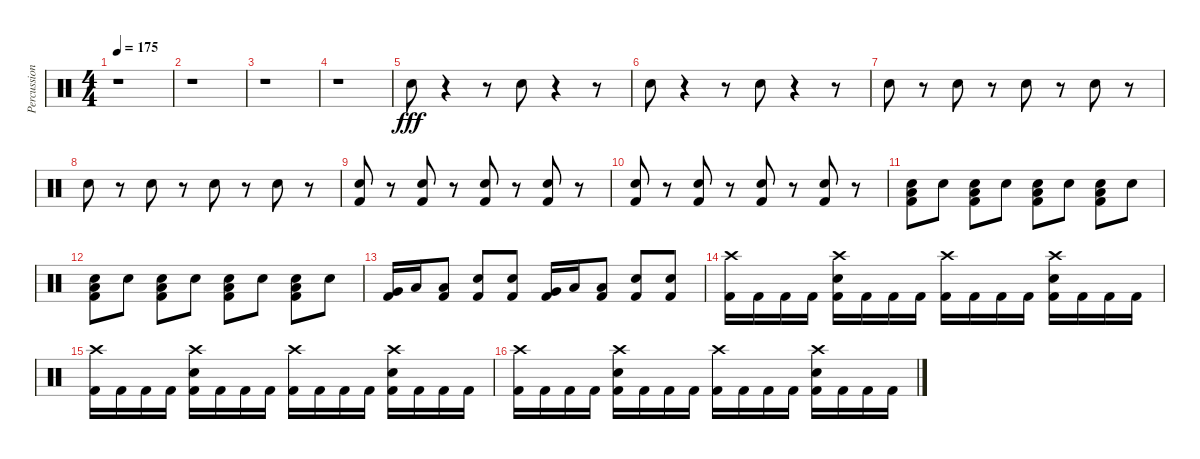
\track ("Percussion" "Percussion") {instrument percussion}
\staff {score}
\articulation defaults
\ts (4 4)
\tempo 175
\clef neutral
\ks c
r.1{dy fff} |
r.1 |
r.1 |
r.1 |
"Electric Snare (hit)".8 r.4 r.8 "Electric Snare (hit)".8 r.4 r.8 |
"Electric Snare (hit)".8 r.4 r.8 "Electric Snare (hit)".8 r.4 r.8 |
"Electric Snare (hit)".8 r.8 "Electric Snare (hit)".8 r.8 "Electric Snare (hit)".8 r.8 "Electric Snare (hit)".8 r.8 |
"Electric Snare (hit)".8 r.8 "Electric Snare (hit)".8 r.8 "Electric Snare (hit)".8 r.8 "Electric Snare (hit)".8 r.8 |
("Kick (hit) 2" "Electric Snare (hit)").8 r.8 ("Kick (hit) 2" "Electric Snare (hit)").8 r.8 ("Kick (hit) 2" "Electric Snare (hit)").8 r.8 ("Kick (hit) 2" "Electric Snare (hit)").8 r.8 |
("Kick (hit) 2" "Electric Snare (hit)").8 r.8 ("Kick (hit) 2" "Electric Snare (hit)").8 r.8 ("Kick (hit) 2" "Electric Snare (hit)").8 r.8 ("Kick (hit) 2" "Electric Snare (hit)").8 r.8 |
("Kick (hit) 2" "Electric Snare (hit)" "Low Floor Tom (hit)").8 "Electric Snare (hit)".8 ("Kick (hit) 2" "Electric Snare (hit)" "Low Floor Tom (hit)").8 "Electric Snare (hit)".8 ("Kick (hit) 2" "Electric Snare (hit)" "Low Floor Tom (hit)").8 "Electric Snare (hit)".8 ("Kick (hit) 2" "Electric Snare (hit)" "Low Floor Tom (hit)").8 "Electric Snare (hit)".8 |
("Kick (hit) 2" "Electric Snare (hit)" "Low Floor Tom (hit)").8 "Electric Snare (hit)".8 ("Kick (hit) 2" "Electric Snare (hit)" "Low Floor Tom (hit)").8 "Electric Snare (hit)".8 ("Kick (hit) 2" "Electric Snare (hit)" "Low Floor Tom (hit)").8 "Electric Snare (hit)".8 ("Kick (hit) 2" "Electric Snare (hit)" "Low Floor Tom (hit)").8 "Electric Snare (hit)".8 |
("Kick (hit) 2" "Very Low Tom (hit)").16 "Low Floor Tom (hit)".16 ("Kick (hit) 2" "Low Floor Tom (hit)").8 ("Kick (hit) 2" "Electric Snare (hit)").8 ("Kick (hit) 2" "Electric Snare (hit)").8 ("Kick (hit) 2" "Very Low Tom (hit)").16 "Low Floor Tom (hit)".16 ("Kick (hit) 2" "Low Floor Tom (hit)").8 ("Kick (hit) 2" "Electric Snare (hit)").8 ("Kick (hit) 2" "Electric Snare (hit)").8 |
("Kick (hit) 2" "Crash high (hit)").16 "Kick (hit) 2".16 "Kick (hit) 2".16 "Kick (hit) 2".16 ("Kick (hit) 2" "Electric Snare (hit)" "Crash high (hit)").16 "Kick (hit) 2".16 "Kick (hit) 2".16 "Kick (hit) 2".16 ("Kick (hit) 2" "Crash high (hit)").16 "Kick (hit) 2".16 "Kick (hit) 2".16 "Kick (hit) 2".16 ("Kick (hit) 2" "Electric Snare (hit)" "Crash high (hit)").16 "Kick (hit) 2".16 "Kick (hit) 2".16 "Kick (hit) 2".16 |
("Kick (hit) 2" "Crash high (hit)").16 "Kick (hit) 2".16 "Kick (hit) 2".16 "Kick (hit) 2".16 ("Kick (hit) 2" "Electric Snare (hit)" "Crash high (hit)").16 "Kick (hit) 2".16 "Kick (hit) 2".16 "Kick (hit) 2".16 ("Kick (hit) 2" "Crash high (hit)").16 "Kick (hit) 2".16 "Kick (hit) 2".16 "Kick (hit) 2".16 ("Kick (hit) 2" "Electric Snare (hit)" "Crash high (hit)").16 "Kick (hit) 2".16 "Kick (hit) 2".16 "Kick (hit) 2".16 |
("Kick (hit) 2" "Crash high (hit)").16 "Kick (hit) 2".16 "Kick (hit) 2".16 "Kick (hit) 2".16 ("Kick (hit) 2" "Electric Snare (hit)" "Crash high (hit)").16 "Kick (hit) 2".16 "Kick (hit) 2".16 "Kick (hit) 2".16 ("Kick (hit) 2" "Crash high (hit)").16 "Kick (hit) 2".16 "Kick (hit) 2".16 "Kick (hit) 2".16 ("Kick (hit) 2" "Electric Snare (hit)" "Crash high (hit)").16 "Kick (hit) 2".16 "Kick (hit) 2".16 "Kick (hit) 2".16
